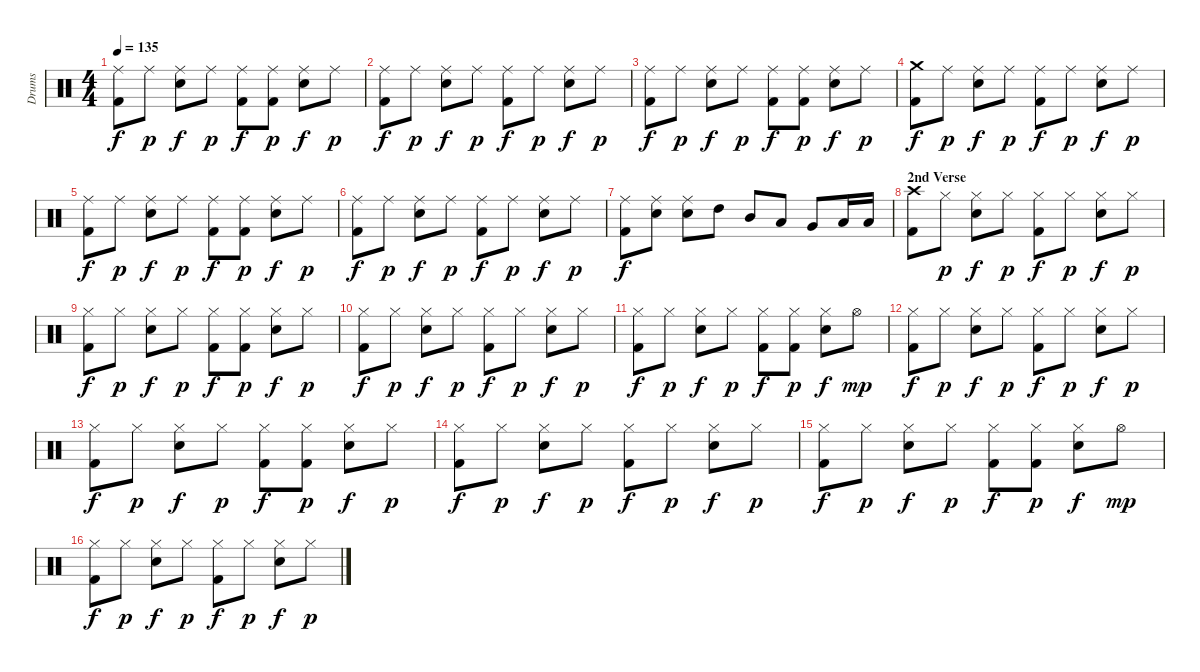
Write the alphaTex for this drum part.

\track ("Drums" "Drums") {instrument percussion}
\staff {score}
\articulation defaults
\ts (4 4)
\tempo 135
\clef neutral
\ks c
("Ride (middle)" "Kick (hit) 2").8{dy f} "Ride (middle)".8{dy p} ("Ride (middle)" "Snare (hit) 2").8{dy f} "Ride (middle)".8{dy p} ("Ride (middle)" "Kick (hit) 2").8{dy f} ("Ride (middle)" "Kick (hit) 2").8{dy p} ("Ride (middle)" "Snare (hit) 2").8{dy f} "Ride (middle)".8{dy p} |
("Ride (middle)" "Kick (hit) 2").8{dy f} "Ride (middle)".8{dy p} ("Ride (middle)" "Snare (hit) 2").8{dy f} "Ride (middle)".8{dy p} ("Ride (middle)" "Kick (hit) 2").8{dy f} "Ride (middle)".8{dy p} ("Ride (middle)" "Snare (hit) 2").8{dy f} "Ride (middle)".8{dy p} |
("Ride (middle)" "Kick (hit) 2").8{dy f} "Ride (middle)".8{dy p} ("Ride (middle)" "Snare (hit) 2").8{dy f} "Ride (middle)".8{dy p} ("Ride (middle)" "Kick (hit) 2").8{dy f} ("Ride (middle)" "Kick (hit) 2").8{dy p} ("Ride (middle)" "Snare (hit) 2").8{dy f} "Ride (middle)".8{dy p} |
("Crash medium (hit)" "Kick (hit) 2").8{dy f} "Ride (middle)".8{dy p} ("Ride (middle)" "Snare (hit) 2").8{dy f} "Ride (middle)".8{dy p} ("Ride (middle)" "Kick (hit) 2").8{dy f} "Ride (middle)".8{dy p} ("Ride (middle)" "Snare (hit) 2").8{dy f} "Ride (middle)".8{dy p} |
("Ride (middle)" "Kick (hit) 2").8{dy f} "Ride (middle)".8{dy p} ("Ride (middle)" "Snare (hit) 2").8{dy f} "Ride (middle)".8{dy p} ("Ride (middle)" "Kick (hit) 2").8{dy f} ("Ride (middle)" "Kick (hit) 2").8{dy p} ("Ride (middle)" "Snare (hit) 2").8{dy f} "Ride (middle)".8{dy p} |
("Ride (middle)" "Kick (hit) 2").8{dy f} "Ride (middle)".8{dy p} ("Ride (middle)" "Snare (hit) 2").8{dy f} "Ride (middle)".8{dy p} ("Ride (middle)" "Kick (hit) 2").8{dy f} "Ride (middle)".8{dy p} ("Ride (middle)" "Snare (hit) 2").8{dy f} "Ride (middle)".8{dy p} |
("Ride (middle)" "Kick (hit) 2").8{dy f} ("Ride (middle)" "Snare (hit) 2").8 ("Ride (middle)" "Snare (hit) 2").8 "High Tom (hit)".8 "Mid Tom (hit)".8 "Low Tom (hit)".8 "Very Low Tom (hit)".8 "Low Floor Tom (hit)".16 "Low Floor Tom (hit)".16 |
\section ("" "2nd Verse")
("Crash high (hit)" "Kick (hit) 2").8 "Hi-Hat (closed)".8{dy p} ("Hi-Hat (closed)" "Snare (hit) 2").8{dy f} "Hi-Hat (closed)".8{dy p} ("Hi-Hat (closed)" "Kick (hit) 2").8{dy f} "Hi-Hat (closed)".8{dy p} ("Hi-Hat (closed)" "Snare (hit) 2").8{dy f} "Hi-Hat (closed)".8{dy p} |
("Hi-Hat (closed)" "Kick (hit) 2").8{dy f} "Hi-Hat (closed)".8{dy p} ("Hi-Hat (closed)" "Snare (hit) 2").8{dy f} "Hi-Hat (closed)".8{dy p} ("Hi-Hat (closed)" "Kick (hit) 2").8{dy f} ("Hi-Hat (closed)" "Kick (hit) 2").8{dy p} ("Hi-Hat (closed)" "Snare (hit) 2").8{dy f} "Hi-Hat (closed)".8{dy p} |
("Hi-Hat (closed)" "Kick (hit) 2").8{dy f} "Hi-Hat (closed)".8{dy p} ("Hi-Hat (closed)" "Snare (hit) 2").8{dy f} "Hi-Hat (closed)".8{dy p} ("Hi-Hat (closed)" "Kick (hit) 2").8{dy f} "Hi-Hat (closed)".8{dy p} ("Hi-Hat (closed)" "Snare (hit) 2").8{dy f} "Hi-Hat (closed)".8{dy p} |
("Hi-Hat (closed)" "Kick (hit) 2").8{dy f} "Hi-Hat (closed)".8{dy p} ("Hi-Hat (closed)" "Snare (hit) 2").8{dy f} "Hi-Hat (closed)".8{dy p} ("Hi-Hat (closed)" "Kick (hit) 2").8{dy f} ("Hi-Hat (closed)" "Kick (hit) 2").8{dy p} ("Hi-Hat (closed)" "Snare (hit) 2").8{dy f} "Hi-Hat (open)".8{dy mp} |
("Hi-Hat (closed)" "Kick (hit) 2").8{dy f} "Hi-Hat (closed)".8{dy p} ("Hi-Hat (closed)" "Snare (hit) 2").8{dy f} "Hi-Hat (closed)".8{dy p} ("Hi-Hat (closed)" "Kick (hit) 2").8{dy f} "Hi-Hat (closed)".8{dy p} ("Hi-Hat (closed)" "Snare (hit) 2").8{dy f} "Hi-Hat (closed)".8{dy p} |
("Hi-Hat (closed)" "Kick (hit) 2").8{dy f} "Hi-Hat (closed)".8{dy p} ("Hi-Hat (closed)" "Snare (hit) 2").8{dy f} "Hi-Hat (closed)".8{dy p} ("Hi-Hat (closed)" "Kick (hit) 2").8{dy f} ("Hi-Hat (closed)" "Kick (hit) 2").8{dy p} ("Hi-Hat (closed)" "Snare (hit) 2").8{dy f} "Hi-Hat (closed)".8{dy p} |
("Hi-Hat (closed)" "Kick (hit) 2").8{dy f} "Hi-Hat (closed)".8{dy p} ("Hi-Hat (closed)" "Snare (hit) 2").8{dy f} "Hi-Hat (closed)".8{dy p} ("Hi-Hat (closed)" "Kick (hit) 2").8{dy f} "Hi-Hat (closed)".8{dy p} ("Hi-Hat (closed)" "Snare (hit) 2").8{dy f} "Hi-Hat (closed)".8{dy p} |
("Hi-Hat (closed)" "Kick (hit) 2").8{dy f} "Hi-Hat (closed)".8{dy p} ("Hi-Hat (closed)" "Snare (hit) 2").8{dy f} "Hi-Hat (closed)".8{dy p} ("Hi-Hat (closed)" "Kick (hit) 2").8{dy f} ("Hi-Hat (closed)" "Kick (hit) 2").8{dy p} ("Hi-Hat (closed)" "Snare (hit) 2").8{dy f} "Hi-Hat (open)".8{dy mp} |
("Hi-Hat (closed)" "Kick (hit) 2").8{dy f} "Hi-Hat (closed)".8{dy p} ("Hi-Hat (closed)" "Snare (hit) 2").8{dy f} "Hi-Hat (closed)".8{dy p} ("Hi-Hat (closed)" "Kick (hit) 2").8{dy f} "Hi-Hat (closed)".8{dy p} ("Hi-Hat (closed)" "Snare (hit) 2").8{dy f} "Hi-Hat (closed)".8{dy p}
